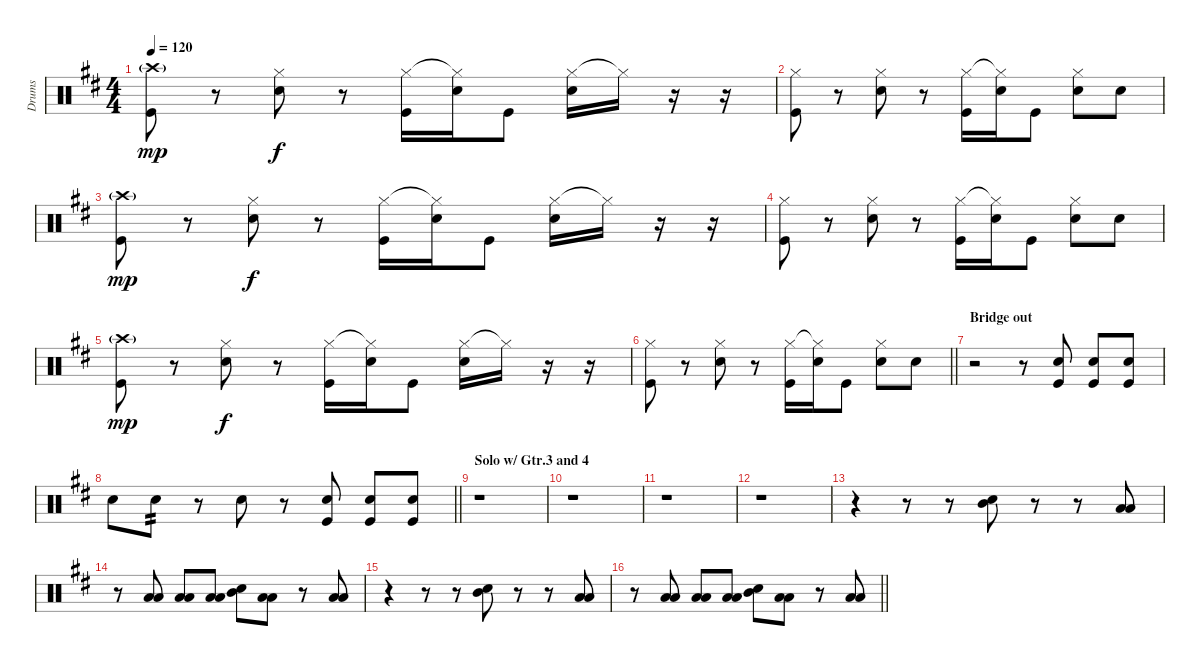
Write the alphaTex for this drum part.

\track ("Drums" "Drums") {instrument percussion}
\staff {score}
\articulation defaults
\ts (4 4)
\tempo 120
\clef neutral
\ks d
("Crash high (hit)"{g} "Kick (hit)").8{dy mp} r.8 ("Hi-Hat (closed)" "Snare (hit) 2").8{dy f} r.8 ("Hi-Hat (closed)" "Kick (hit)").16 ("Hi-Hat (closed)"{t} "Snare (hit) 2").16 "Kick (hit)".8 ("Hi-Hat (closed)" "Snare (hit) 2").16 "Hi-Hat (closed)"{t}.16 r.16 r.16 |
("Hi-Hat (closed)" "Kick (hit)").8 r.8 ("Hi-Hat (closed)" "Snare (hit) 2").8 r.8 ("Hi-Hat (closed)" "Kick (hit)").16 ("Hi-Hat (closed)"{t} "Snare (hit) 2").16 "Kick (hit)".8 ("Hi-Hat (closed)" "Snare (hit) 2").8 "Snare (hit) 2".8 |
("Crash high (hit)"{g} "Kick (hit)").8{dy mp} r.8 ("Hi-Hat (closed)" "Snare (hit) 2").8{dy f} r.8 ("Hi-Hat (closed)" "Kick (hit)").16 ("Hi-Hat (closed)"{t} "Snare (hit) 2").16 "Kick (hit)".8 ("Hi-Hat (closed)" "Snare (hit) 2").16 "Hi-Hat (closed)"{t}.16 r.16 r.16 |
("Hi-Hat (closed)" "Kick (hit)").8 r.8 ("Hi-Hat (closed)" "Snare (hit) 2").8 r.8 ("Hi-Hat (closed)" "Kick (hit)").16 ("Hi-Hat (closed)"{t} "Snare (hit) 2").16 "Kick (hit)".8 ("Hi-Hat (closed)" "Snare (hit) 2").8 "Snare (hit) 2".8 |
("Crash high (hit)"{g} "Kick (hit)").8{dy mp} r.8 ("Hi-Hat (closed)" "Snare (hit) 2").8{dy f} r.8 ("Hi-Hat (closed)" "Kick (hit)").16 ("Hi-Hat (closed)"{t} "Snare (hit) 2").16 "Kick (hit)".8 ("Hi-Hat (closed)" "Snare (hit) 2").16 "Hi-Hat (closed)"{t}.16 r.16 r.16 |
\barLineRight lightlight
("Hi-Hat (closed)" "Kick (hit)").8 r.8 ("Hi-Hat (closed)" "Snare (hit) 2").8 r.8 ("Hi-Hat (closed)" "Kick (hit)").16 ("Hi-Hat (closed)"{t} "Snare (hit) 2").16 "Kick (hit)".8 ("Hi-Hat (closed)" "Snare (hit) 2").8 "Snare (hit) 2".8 |
\section ("" "Bridge out")
r.2 r.8 ("Snare (hit) 2" "Kick (hit)").8 ("Snare (hit) 2" "Kick (hit)").8 ("Snare (hit) 2" "Kick (hit)").8 |
\barLineRight lightlight "Electric Snare (hit)".8 "Snare (hit) 2".8{tp 2}
r.8 "Electric Snare (hit)".8 r.8 ("Snare (hit) 2" "Kick (hit)").8 ("Snare (hit) 2" "Kick (hit)").8 ("Snare (hit) 2" "Kick (hit)").8 |
\section ("" "Solo w/ Gtr.3 and 4")
r.1 |
r.1 |
r.1 |
r.1 |
r.4 r.8 r.8 ("Electric Snare (hit)" "Mid Tom (hit)").8 r.8 r.8 ("Low Tom (hit)" "Low Floor Tom (hit)").8 |
r.8 ("Low Tom (hit)" "Low Floor Tom (hit)").8 ("Low Tom (hit)" "Low Floor Tom (hit)").8 ("Low Tom (hit)" "Low Floor Tom (hit)").8 ("Electric Snare (hit)" "Mid Tom (hit)").8 ("Low Tom (hit)" "Low Floor Tom (hit)").8 r.8 ("Low Tom (hit)" "Low Floor Tom (hit)").8 |
r.4 r.8 r.8 ("Electric Snare (hit)" "Mid Tom (hit)").8 r.8 r.8 ("Low Tom (hit)" "Low Floor Tom (hit)").8 |
\barLineRight lightlight
r.8 ("Low Tom (hit)" "Low Floor Tom (hit)").8 ("Low Tom (hit)" "Low Floor Tom (hit)").8 ("Low Tom (hit)" "Low Floor Tom (hit)").8 ("Electric Snare (hit)" "Mid Tom (hit)").8 ("Low Tom (hit)" "Low Floor Tom (hit)").8 r.8 ("Low Tom (hit)" "Low Floor Tom (hit)").8
